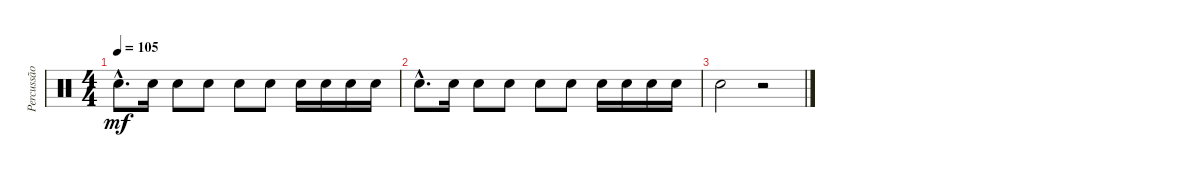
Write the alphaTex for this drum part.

\track ("Percussão" "Percussão") {instrument percussion}
\staff {score}
\articulation defaults
\ts (4 4)
\tempo 105
\clef neutral
\ks c "Snare (hit) 2"{hac}.8{d dy mf} "Snare (hit) 2".16 "Snare (hit) 2".8 "Snare (hit) 2".8 "Snare (hit) 2".8 "Snare (hit) 2".8 "Snare (hit) 2".16 "Snare (hit) 2".16 "Snare (hit) 2".16 "Snare (hit) 2".16
|
"Snare (hit) 2"{hac}.8{d} "Snare (hit) 2".16 "Snare (hit) 2".8 "Snare (hit) 2".8 "Snare (hit) 2".8 "Snare (hit) 2".8 "Snare (hit) 2".16 "Snare (hit) 2".16 "Snare (hit) 2".16 "Snare (hit) 2".16 |
"Snare (hit) 2".2 r.2
